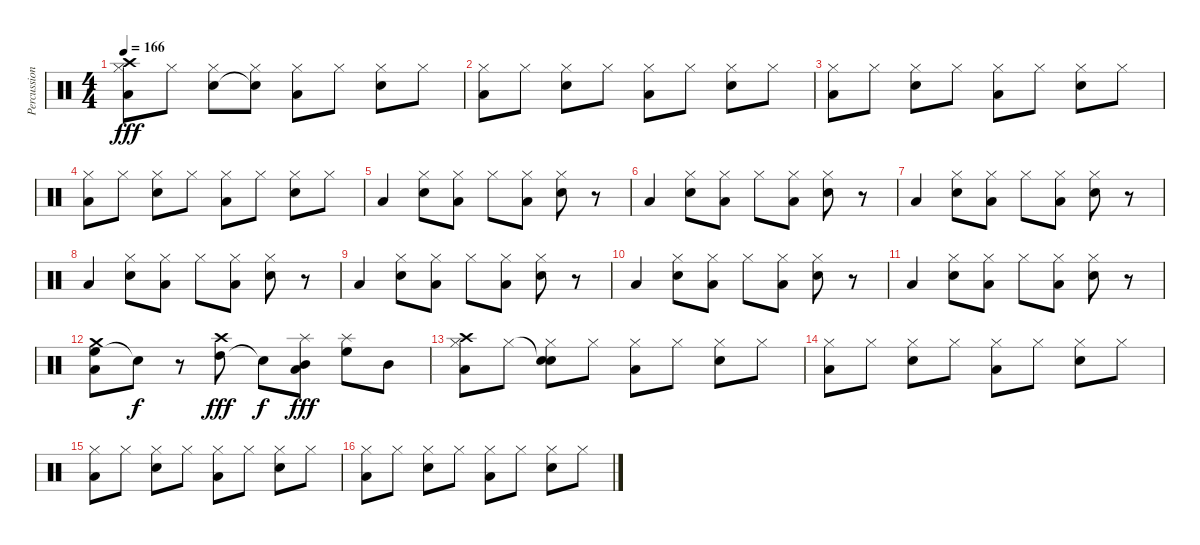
\track ("Percussions" "Percussion") {instrument percussion}
\staff {score}
\articulation defaults
\ts (4 4)
\tempo 166
\clef neutral
\ks c
("Crash high (hit)" "Low Tom (hit)" "Hi-Hat (closed)").8{dy fff} "Hi-Hat (closed)".8 ("Snare (hit) 2" "Hi-Hat (closed)").8 ("Snare (hit)"{t} "Hi-Hat (closed)").8 ("Low Tom (hit)" "Hi-Hat (closed)").8 "Hi-Hat (closed)".8 ("Snare (hit) 2" "Hi-Hat (closed)").8 "Hi-Hat (closed)".8 |
("Low Tom (hit)" "Hi-Hat (closed)").8 "Hi-Hat (closed)".8 ("Snare (hit) 2" "Hi-Hat (closed)").8 "Hi-Hat (closed)".8 ("Low Tom (hit)" "Hi-Hat (closed)").8 "Hi-Hat (closed)".8 ("Snare (hit) 2" "Hi-Hat (closed)").8 "Hi-Hat (closed)".8 |
("Low Tom (hit)" "Hi-Hat (closed)").8 "Hi-Hat (closed)".8 ("Snare (hit) 2" "Hi-Hat (closed)").8 "Hi-Hat (closed)".8 ("Low Tom (hit)" "Hi-Hat (closed)").8 "Hi-Hat (closed)".8 ("Snare (hit) 2" "Hi-Hat (closed)").8 "Hi-Hat (closed)".8 |
("Low Tom (hit)" "Hi-Hat (closed)").8 "Hi-Hat (closed)".8 ("Snare (hit) 2" "Hi-Hat (closed)").8 "Hi-Hat (closed)".8 ("Low Tom (hit)" "Hi-Hat (closed)").8 "Hi-Hat (closed)".8 ("Snare (hit) 2" "Hi-Hat (closed)").8 "Hi-Hat (closed)".8 |
"Low Tom (hit)".4 ("Snare (hit) 2" "Hi-Hat (closed)").8 ("Low Tom (hit)" "Hi-Hat (closed)").8 "Hi-Hat (closed)".8 ("Low Tom (hit)" "Hi-Hat (closed)").8 ("Snare (hit) 2" "Hi-Hat (closed)").8 r.8 |
"Low Tom (hit)".4 ("Snare (hit) 2" "Hi-Hat (closed)").8 ("Low Tom (hit)" "Hi-Hat (closed)").8 "Hi-Hat (closed)".8 ("Low Tom (hit)" "Hi-Hat (closed)").8 ("Snare (hit) 2" "Hi-Hat (closed)").8 r.8 |
"Low Tom (hit)".4 ("Snare (hit) 2" "Hi-Hat (closed)").8 ("Low Tom (hit)" "Hi-Hat (closed)").8 "Hi-Hat (closed)".8 ("Low Tom (hit)" "Hi-Hat (closed)").8 ("Snare (hit) 2" "Hi-Hat (closed)").8 r.8 |
"Low Tom (hit)".4 ("Snare (hit) 2" "Hi-Hat (closed)").8 ("Low Tom (hit)" "Hi-Hat (closed)").8 "Hi-Hat (closed)".8 ("Low Tom (hit)" "Hi-Hat (closed)").8 ("Snare (hit) 2" "Hi-Hat (closed)").8 r.8 |
"Low Tom (hit)".4 ("Snare (hit) 2" "Hi-Hat (closed)").8 ("Low Tom (hit)" "Hi-Hat (closed)").8 "Hi-Hat (closed)".8 ("Low Tom (hit)" "Hi-Hat (closed)").8 ("Snare (hit) 2" "Hi-Hat (closed)").8 r.8 |
"Low Tom (hit)".4 ("Snare (hit) 2" "Hi-Hat (closed)").8 ("Low Tom (hit)" "Hi-Hat (closed)").8 "Hi-Hat (closed)".8 ("Low Tom (hit)" "Hi-Hat (closed)").8 ("Snare (hit) 2" "Hi-Hat (closed)").8 r.8 |
"Low Tom (hit)".4 ("Snare (hit) 2" "Hi-Hat (closed)").8 ("Low Tom (hit)" "Hi-Hat (closed)").8 "Hi-Hat (closed)".8 ("Low Tom (hit)" "Hi-Hat (closed)").8 ("Snare (hit) 2" "Hi-Hat (closed)").8 r.8 |
("High Floor Tom (hit)" "Crash medium (hit)" "Low Tom (hit)").8 "Snare (hit)"{t}.8{dy f} r.8 ("High Tom (hit)" "Crash high (hit)").8{dy fff} "Snare (hit)"{t}.8{dy f} ("Mid Tom (hit)" "Splash (hit)" "Low Tom (hit)").8{dy fff} ("High Floor Tom (hit)" "Splash (hit)").8 "Mid Tom (hit)".8 |
("Crash high (hit)" "Low Tom (hit)" "Hi-Hat (closed)").8 "Hi-Hat (closed)".8 ("Snare (hit)"{t} "Snare (hit) 2" "Hi-Hat (closed)").8 "Hi-Hat (closed)".8 ("Low Tom (hit)" "Hi-Hat (closed)").8 "Hi-Hat (closed)".8 ("Snare (hit) 2" "Hi-Hat (closed)").8 "Hi-Hat (closed)".8 |
("Low Tom (hit)" "Hi-Hat (closed)").8 "Hi-Hat (closed)".8 ("Snare (hit) 2" "Hi-Hat (closed)").8 "Hi-Hat (closed)".8 ("Low Tom (hit)" "Hi-Hat (closed)").8 "Hi-Hat (closed)".8 ("Snare (hit) 2" "Hi-Hat (closed)").8 "Hi-Hat (closed)".8 |
("Low Tom (hit)" "Hi-Hat (closed)").8 "Hi-Hat (closed)".8 ("Snare (hit) 2" "Hi-Hat (closed)").8 "Hi-Hat (closed)".8 ("Low Tom (hit)" "Hi-Hat (closed)").8 "Hi-Hat (closed)".8 ("Snare (hit) 2" "Hi-Hat (closed)").8 "Hi-Hat (closed)".8 |
("Low Tom (hit)" "Hi-Hat (closed)").8 "Hi-Hat (closed)".8 ("Snare (hit) 2" "Hi-Hat (closed)").8 "Hi-Hat (closed)".8 ("Low Tom (hit)" "Hi-Hat (closed)").8 "Hi-Hat (closed)".8 ("Snare (hit) 2" "Hi-Hat (closed)").8 "Hi-Hat (closed)".8
